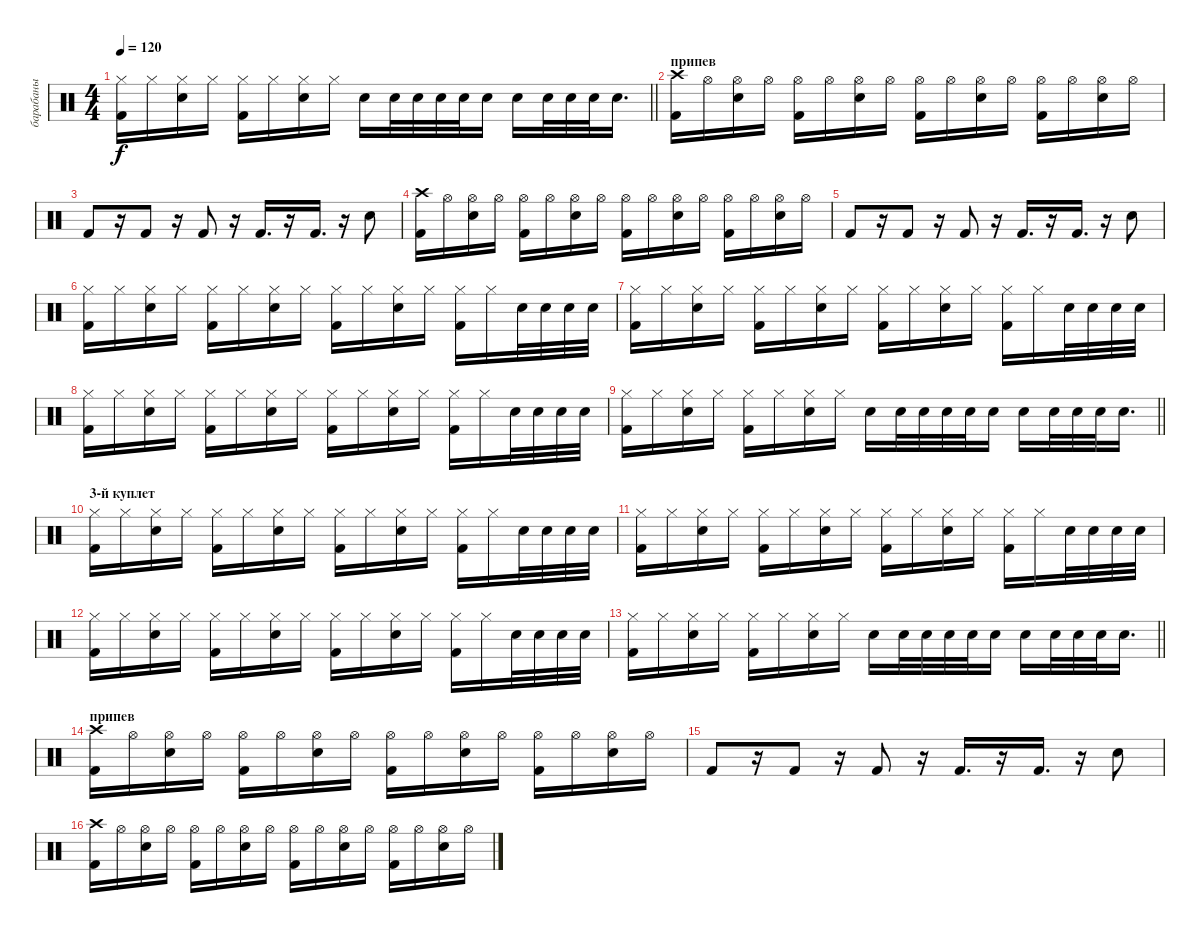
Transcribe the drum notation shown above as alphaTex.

\track ("барабаны" "барабаны") {instrument percussion}
\staff {score}
\articulation defaults
\ts (4 4)
\tempo 120
\clef neutral
\barLineRight lightlight
\ks c
("Hi-Hat (closed)" "Kick (hit) 2").16{dy f} "Hi-Hat (closed)".16 ("Hi-Hat (closed)" "Snare (hit) 2").16 "Hi-Hat (closed)".16 ("Hi-Hat (closed)" "Kick (hit) 2").16 "Hi-Hat (closed)".16 ("Hi-Hat (closed)" "Snare (hit) 2").16 "Hi-Hat (closed)".16 "Snare (hit) 2".16 "Snare (hit) 2".32 "Snare (hit) 2".32 "Snare (hit) 2".32 "Snare (hit) 2".32 "Snare (hit) 2".16 "Snare (hit) 2".16 "Snare (hit) 2".32 "Snare (hit) 2".32 "Snare (hit) 2".32 "Snare (hit) 2".16{d} |
\section ("" "припев")
("Crash high (hit)" "Kick (hit) 2").16 "Hi-Hat (open)".16 ("Hi-Hat (open)" "Snare (hit) 2").16 "Hi-Hat (open)".16 ("Hi-Hat (open)" "Kick (hit) 2").16 "Hi-Hat (open)".16 ("Hi-Hat (open)" "Snare (hit) 2").16 "Hi-Hat (open)".16 ("Hi-Hat (open)" "Kick (hit) 2").16 "Hi-Hat (open)".16 ("Hi-Hat (open)" "Snare (hit) 2").16 "Hi-Hat (open)".16 ("Hi-Hat (open)" "Kick (hit) 2").16 "Hi-Hat (open)".16 ("Hi-Hat (open)" "Snare (hit) 2").16 "Hi-Hat (open)".16 |
"Kick (hit) 2".8 r.16 "Kick (hit) 2".8 r.16 "Kick (hit) 2".8 r.16 "Kick (hit) 2".16{d} r.16 "Kick (hit) 2".16{d} r.16 "Snare (hit) 2".8 |
("Crash high (hit)" "Kick (hit) 2").16 "Hi-Hat (open)".16 ("Hi-Hat (open)" "Snare (hit) 2").16 "Hi-Hat (open)".16 ("Hi-Hat (open)" "Kick (hit) 2").16 "Hi-Hat (open)".16 ("Hi-Hat (open)" "Snare (hit) 2").16 "Hi-Hat (open)".16 ("Hi-Hat (open)" "Kick (hit) 2").16 "Hi-Hat (open)".16 ("Hi-Hat (open)" "Snare (hit) 2").16 "Hi-Hat (open)".16 ("Hi-Hat (open)" "Kick (hit) 2").16 "Hi-Hat (open)".16 ("Hi-Hat (open)" "Snare (hit) 2").16 "Hi-Hat (open)".16 |
"Kick (hit) 2".8 r.16 "Kick (hit) 2".8 r.16 "Kick (hit) 2".8 r.16 "Kick (hit) 2".16{d} r.16 "Kick (hit) 2".16{d} r.16 "Snare (hit) 2".8 |
("Hi-Hat (closed)" "Kick (hit) 2").16 "Hi-Hat (closed)".16 ("Hi-Hat (closed)" "Snare (hit) 2").16 "Hi-Hat (closed)".16 ("Hi-Hat (closed)" "Kick (hit) 2").16 "Hi-Hat (closed)".16 ("Hi-Hat (closed)" "Snare (hit) 2").16 "Hi-Hat (closed)".16 ("Hi-Hat (closed)" "Kick (hit) 2").16 "Hi-Hat (closed)".16 ("Hi-Hat (closed)" "Snare (hit) 2").16 "Hi-Hat (closed)".16 ("Hi-Hat (closed)" "Kick (hit) 2").16 "Hi-Hat (closed)".16 "Snare (hit) 2".32 "Snare (hit) 2".32 "Snare (hit) 2".32 "Snare (hit) 2".32 |
("Hi-Hat (closed)" "Kick (hit) 2").16 "Hi-Hat (closed)".16 ("Hi-Hat (closed)" "Snare (hit) 2").16 "Hi-Hat (closed)".16 ("Hi-Hat (closed)" "Kick (hit) 2").16 "Hi-Hat (closed)".16 ("Hi-Hat (closed)" "Snare (hit) 2").16 "Hi-Hat (closed)".16 ("Hi-Hat (closed)" "Kick (hit) 2").16 "Hi-Hat (closed)".16 ("Hi-Hat (closed)" "Snare (hit) 2").16 "Hi-Hat (closed)".16 ("Hi-Hat (closed)" "Kick (hit) 2").16 "Hi-Hat (closed)".16 "Snare (hit) 2".32 "Snare (hit) 2".32 "Snare (hit) 2".32 "Snare (hit) 2".32 |
("Hi-Hat (closed)" "Kick (hit) 2").16 "Hi-Hat (closed)".16 ("Hi-Hat (closed)" "Snare (hit) 2").16 "Hi-Hat (closed)".16 ("Hi-Hat (closed)" "Kick (hit) 2").16 "Hi-Hat (closed)".16 ("Hi-Hat (closed)" "Snare (hit) 2").16 "Hi-Hat (closed)".16 ("Hi-Hat (closed)" "Kick (hit) 2").16 "Hi-Hat (closed)".16 ("Hi-Hat (closed)" "Snare (hit) 2").16 "Hi-Hat (closed)".16 ("Hi-Hat (closed)" "Kick (hit) 2").16 "Hi-Hat (closed)".16 "Snare (hit) 2".32 "Snare (hit) 2".32 "Snare (hit) 2".32 "Snare (hit) 2".32 |
\barLineRight lightlight
("Hi-Hat (closed)" "Kick (hit) 2").16 "Hi-Hat (closed)".16 ("Hi-Hat (closed)" "Snare (hit) 2").16 "Hi-Hat (closed)".16 ("Hi-Hat (closed)" "Kick (hit) 2").16 "Hi-Hat (closed)".16 ("Hi-Hat (closed)" "Snare (hit) 2").16 "Hi-Hat (closed)".16 "Snare (hit) 2".16 "Snare (hit) 2".32 "Snare (hit) 2".32 "Snare (hit) 2".32 "Snare (hit) 2".32 "Snare (hit) 2".16 "Snare (hit) 2".16 "Snare (hit) 2".32 "Snare (hit) 2".32 "Snare (hit) 2".32 "Snare (hit) 2".16{d} |
\section ("" "3-й куплет")
("Hi-Hat (closed)" "Kick (hit) 2").16 "Hi-Hat (closed)".16 ("Hi-Hat (closed)" "Snare (hit) 2").16 "Hi-Hat (closed)".16 ("Hi-Hat (closed)" "Kick (hit) 2").16 "Hi-Hat (closed)".16 ("Hi-Hat (closed)" "Snare (hit) 2").16 "Hi-Hat (closed)".16 ("Hi-Hat (closed)" "Kick (hit) 2").16 "Hi-Hat (closed)".16 ("Hi-Hat (closed)" "Snare (hit) 2").16 "Hi-Hat (closed)".16 ("Hi-Hat (closed)" "Kick (hit) 2").16 "Hi-Hat (closed)".16 "Snare (hit) 2".32 "Snare (hit) 2".32 "Snare (hit) 2".32 "Snare (hit) 2".32 |
("Hi-Hat (closed)" "Kick (hit) 2").16 "Hi-Hat (closed)".16 ("Hi-Hat (closed)" "Snare (hit) 2").16 "Hi-Hat (closed)".16 ("Hi-Hat (closed)" "Kick (hit) 2").16 "Hi-Hat (closed)".16 ("Hi-Hat (closed)" "Snare (hit) 2").16 "Hi-Hat (closed)".16 ("Hi-Hat (closed)" "Kick (hit) 2").16 "Hi-Hat (closed)".16 ("Hi-Hat (closed)" "Snare (hit) 2").16 "Hi-Hat (closed)".16 ("Hi-Hat (closed)" "Kick (hit) 2").16 "Hi-Hat (closed)".16 "Snare (hit) 2".32 "Snare (hit) 2".32 "Snare (hit) 2".32 "Snare (hit) 2".32 |
("Hi-Hat (closed)" "Kick (hit) 2").16 "Hi-Hat (closed)".16 ("Hi-Hat (closed)" "Snare (hit) 2").16 "Hi-Hat (closed)".16 ("Hi-Hat (closed)" "Kick (hit) 2").16 "Hi-Hat (closed)".16 ("Hi-Hat (closed)" "Snare (hit) 2").16 "Hi-Hat (closed)".16 ("Hi-Hat (closed)" "Kick (hit) 2").16 "Hi-Hat (closed)".16 ("Hi-Hat (closed)" "Snare (hit) 2").16 "Hi-Hat (closed)".16 ("Hi-Hat (closed)" "Kick (hit) 2").16 "Hi-Hat (closed)".16 "Snare (hit) 2".32 "Snare (hit) 2".32 "Snare (hit) 2".32 "Snare (hit) 2".32 |
\barLineRight lightlight
("Hi-Hat (closed)" "Kick (hit) 2").16 "Hi-Hat (closed)".16 ("Hi-Hat (closed)" "Snare (hit) 2").16 "Hi-Hat (closed)".16 ("Hi-Hat (closed)" "Kick (hit) 2").16 "Hi-Hat (closed)".16 ("Hi-Hat (closed)" "Snare (hit) 2").16 "Hi-Hat (closed)".16 "Snare (hit) 2".16 "Snare (hit) 2".32 "Snare (hit) 2".32 "Snare (hit) 2".32 "Snare (hit) 2".32 "Snare (hit) 2".16 "Snare (hit) 2".16 "Snare (hit) 2".32 "Snare (hit) 2".32 "Snare (hit) 2".32 "Snare (hit) 2".16{d} |
\section ("" "припев")
("Crash high (hit)" "Kick (hit) 2").16 "Hi-Hat (open)".16 ("Hi-Hat (open)" "Snare (hit) 2").16 "Hi-Hat (open)".16 ("Hi-Hat (open)" "Kick (hit) 2").16 "Hi-Hat (open)".16 ("Hi-Hat (open)" "Snare (hit) 2").16 "Hi-Hat (open)".16 ("Hi-Hat (open)" "Kick (hit) 2").16 "Hi-Hat (open)".16 ("Hi-Hat (open)" "Snare (hit) 2").16 "Hi-Hat (open)".16 ("Hi-Hat (open)" "Kick (hit) 2").16 "Hi-Hat (open)".16 ("Hi-Hat (open)" "Snare (hit) 2").16 "Hi-Hat (open)".16 |
"Kick (hit) 2".8 r.16 "Kick (hit) 2".8 r.16 "Kick (hit) 2".8 r.16 "Kick (hit) 2".16{d} r.16 "Kick (hit) 2".16{d} r.16 "Snare (hit) 2".8 |
("Crash high (hit)" "Kick (hit) 2").16 "Hi-Hat (open)".16 ("Hi-Hat (open)" "Snare (hit) 2").16 "Hi-Hat (open)".16 ("Hi-Hat (open)" "Kick (hit) 2").16 "Hi-Hat (open)".16 ("Hi-Hat (open)" "Snare (hit) 2").16 "Hi-Hat (open)".16 ("Hi-Hat (open)" "Kick (hit) 2").16 "Hi-Hat (open)".16 ("Hi-Hat (open)" "Snare (hit) 2").16 "Hi-Hat (open)".16 ("Hi-Hat (open)" "Kick (hit) 2").16 "Hi-Hat (open)".16 ("Hi-Hat (open)" "Snare (hit) 2").16 "Hi-Hat (open)".16
